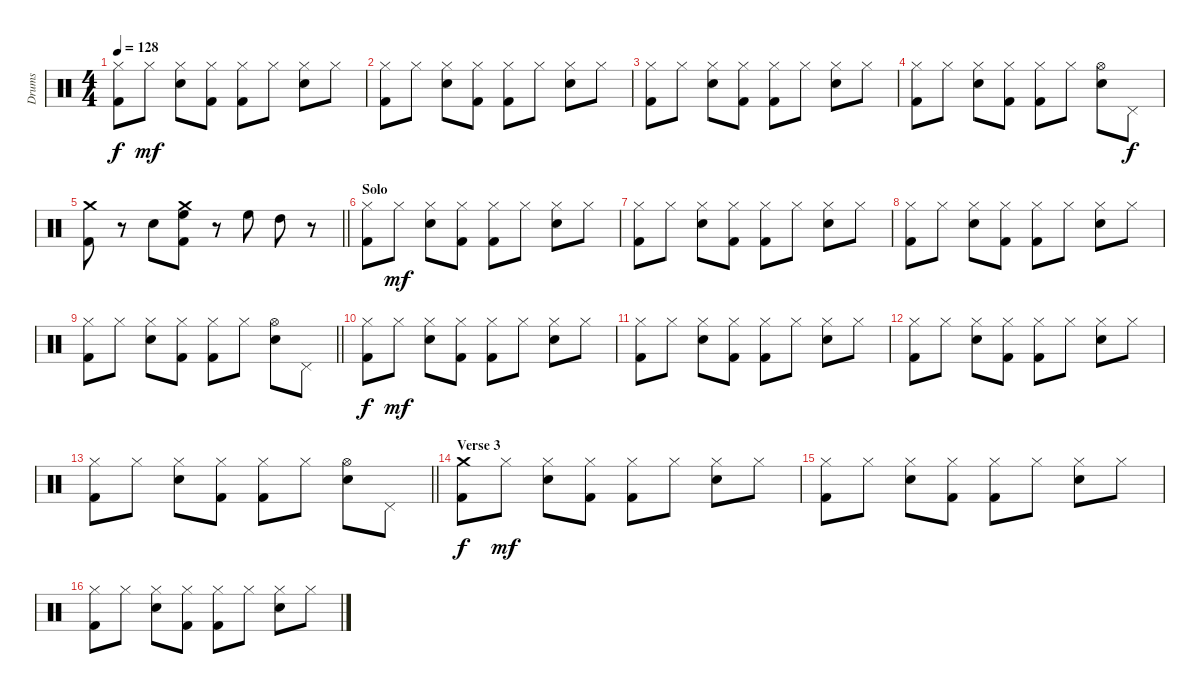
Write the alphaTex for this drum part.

\track ("Drums" "Drums") {instrument percussion}
\staff {score}
\articulation defaults
\ts (4 4)
\tempo 128
\clef neutral
\ks c
("Hi-Hat (closed)" "Kick (hit) 2").8{dy f} "Hi-Hat (closed)".8{dy mf} ("Hi-Hat (closed)" "Snare (hit) 2").8 ("Hi-Hat (closed)" "Kick (hit) 2").8 ("Hi-Hat (closed)" "Kick (hit) 2").8 "Hi-Hat (closed)".8 ("Hi-Hat (closed)" "Snare (hit) 2").8 "Hi-Hat (closed)".8 |
("Hi-Hat (closed)" "Kick (hit) 2").8 "Hi-Hat (closed)".8 ("Hi-Hat (closed)" "Snare (hit) 2").8 ("Hi-Hat (closed)" "Kick (hit) 2").8 ("Hi-Hat (closed)" "Kick (hit) 2").8 "Hi-Hat (closed)".8 ("Hi-Hat (closed)" "Snare (hit) 2").8 "Hi-Hat (closed)".8 |
("Hi-Hat (closed)" "Kick (hit) 2").8 "Hi-Hat (closed)".8 ("Hi-Hat (closed)" "Snare (hit) 2").8 ("Hi-Hat (closed)" "Kick (hit) 2").8 ("Hi-Hat (closed)" "Kick (hit) 2").8 "Hi-Hat (closed)".8 ("Hi-Hat (closed)" "Snare (hit) 2").8 "Hi-Hat (closed)".8 |
("Hi-Hat (closed)" "Kick (hit) 2").8 "Hi-Hat (closed)".8 ("Hi-Hat (closed)" "Snare (hit) 2").8 ("Hi-Hat (closed)" "Kick (hit) 2").8 ("Hi-Hat (closed)" "Kick (hit) 2").8 "Hi-Hat (closed)".8 ("Hi-Hat (open)" "Snare (hit) 2").8 "Pedal Hi-Hat (hit)".8{dy f} |
\barLineRight lightlight
("Crash medium (hit)" "Kick (hit) 2").8 r.8 "Snare (hit) 2".8 ("Crash medium (hit)" "High Floor Tom (hit)" "Kick (hit) 2").8 r.8 "High Floor Tom (hit)".8 "High Tom (hit)".8 r.8 |
\section ("" "Solo")
("Hi-Hat (closed)" "Kick (hit) 2").8 "Hi-Hat (closed)".8{dy mf} ("Hi-Hat (closed)" "Snare (hit) 2").8 ("Hi-Hat (closed)" "Kick (hit) 2").8 ("Hi-Hat (closed)" "Kick (hit) 2").8 "Hi-Hat (closed)".8 ("Hi-Hat (closed)" "Snare (hit) 2").8 "Hi-Hat (closed)".8 |
("Hi-Hat (closed)" "Kick (hit) 2").8 "Hi-Hat (closed)".8 ("Hi-Hat (closed)" "Snare (hit) 2").8 ("Hi-Hat (closed)" "Kick (hit) 2").8 ("Hi-Hat (closed)" "Kick (hit) 2").8 "Hi-Hat (closed)".8 ("Hi-Hat (closed)" "Snare (hit) 2").8 "Hi-Hat (closed)".8 |
("Hi-Hat (closed)" "Kick (hit) 2").8 "Hi-Hat (closed)".8 ("Hi-Hat (closed)" "Snare (hit) 2").8 ("Hi-Hat (closed)" "Kick (hit) 2").8 ("Hi-Hat (closed)" "Kick (hit) 2").8 "Hi-Hat (closed)".8 ("Hi-Hat (closed)" "Snare (hit) 2").8 "Hi-Hat (closed)".8 |
\barLineRight lightlight
("Hi-Hat (closed)" "Kick (hit) 2").8 "Hi-Hat (closed)".8 ("Hi-Hat (closed)" "Snare (hit) 2").8 ("Hi-Hat (closed)" "Kick (hit) 2").8 ("Hi-Hat (closed)" "Kick (hit) 2").8 "Hi-Hat (closed)".8 ("Hi-Hat (open)" "Snare (hit) 2").8 "Pedal Hi-Hat (hit)".8 |
("Hi-Hat (closed)" "Kick (hit) 2").8{dy f} "Hi-Hat (closed)".8{dy mf} ("Hi-Hat (closed)" "Snare (hit) 2").8 ("Hi-Hat (closed)" "Kick (hit) 2").8 ("Hi-Hat (closed)" "Kick (hit) 2").8 "Hi-Hat (closed)".8 ("Hi-Hat (closed)" "Snare (hit) 2").8 "Hi-Hat (closed)".8 |
("Hi-Hat (closed)" "Kick (hit) 2").8 "Hi-Hat (closed)".8 ("Hi-Hat (closed)" "Snare (hit) 2").8 ("Hi-Hat (closed)" "Kick (hit) 2").8 ("Hi-Hat (closed)" "Kick (hit) 2").8 "Hi-Hat (closed)".8 ("Hi-Hat (closed)" "Snare (hit) 2").8 "Hi-Hat (closed)".8 |
("Hi-Hat (closed)" "Kick (hit) 2").8 "Hi-Hat (closed)".8 ("Hi-Hat (closed)" "Snare (hit) 2").8 ("Hi-Hat (closed)" "Kick (hit) 2").8 ("Hi-Hat (closed)" "Kick (hit) 2").8 "Hi-Hat (closed)".8 ("Hi-Hat (closed)" "Snare (hit) 2").8 "Hi-Hat (closed)".8 |
\barLineRight lightlight
("Hi-Hat (closed)" "Kick (hit) 2").8 "Hi-Hat (closed)".8 ("Hi-Hat (closed)" "Snare (hit) 2").8 ("Hi-Hat (closed)" "Kick (hit) 2").8 ("Hi-Hat (closed)" "Kick (hit) 2").8 "Hi-Hat (closed)".8 ("Hi-Hat (open)" "Snare (hit) 2").8 "Pedal Hi-Hat (hit)".8 |
\section ("" "Verse 3")
("Crash medium (hit)" "Kick (hit) 2").8{dy f} "Hi-Hat (closed)".8{dy mf} ("Hi-Hat (closed)" "Snare (hit) 2").8 ("Hi-Hat (closed)" "Kick (hit) 2").8 ("Hi-Hat (closed)" "Kick (hit) 2").8 "Hi-Hat (closed)".8 ("Hi-Hat (closed)" "Snare (hit) 2").8 "Hi-Hat (closed)".8 |
("Hi-Hat (closed)" "Kick (hit) 2").8 "Hi-Hat (closed)".8 ("Hi-Hat (closed)" "Snare (hit) 2").8 ("Hi-Hat (closed)" "Kick (hit) 2").8 ("Hi-Hat (closed)" "Kick (hit) 2").8 "Hi-Hat (closed)".8 ("Hi-Hat (closed)" "Snare (hit) 2").8 "Hi-Hat (closed)".8 |
("Hi-Hat (closed)" "Kick (hit) 2").8 "Hi-Hat (closed)".8 ("Hi-Hat (closed)" "Snare (hit) 2").8 ("Hi-Hat (closed)" "Kick (hit) 2").8 ("Hi-Hat (closed)" "Kick (hit) 2").8 "Hi-Hat (closed)".8 ("Hi-Hat (closed)" "Snare (hit) 2").8 "Hi-Hat (closed)".8
